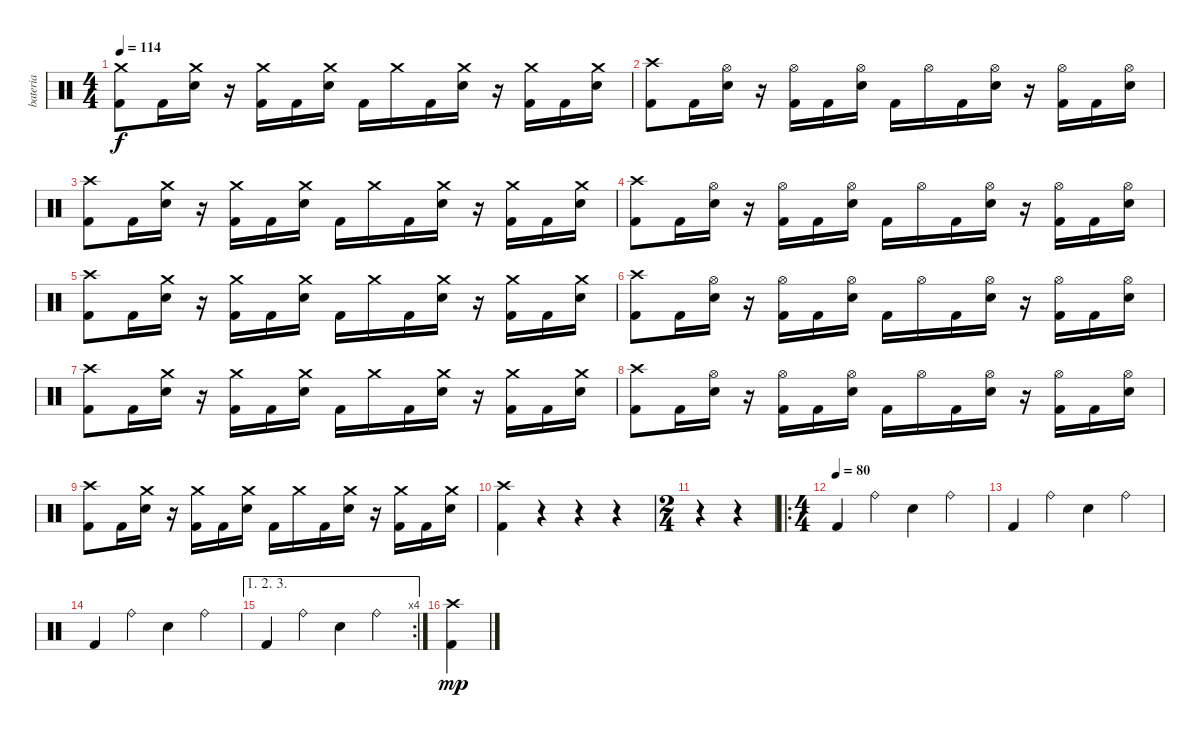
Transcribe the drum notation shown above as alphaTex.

\track ("bateria" "bateria") {instrument percussion}
\staff {score}
\articulation defaults
\ts (4 4)
\tempo 114
\clef neutral
\ks c
("Crash medium (hit)" "Kick (hit) 2").8{dy f} "Kick (hit) 2".16 ("Crash medium (hit)" "Electric Snare (hit)").16 r.16 ("Crash medium (hit)" "Kick (hit) 2").16 "Kick (hit) 2".16 ("Crash medium (hit)" "Electric Snare (hit)").16 "Kick (hit) 2".16 "Crash medium (hit)".16 "Kick (hit) 2".16 ("Crash medium (hit)" "Electric Snare (hit)").16 r.16 ("Crash medium (hit)" "Kick (hit) 2").16 "Kick (hit) 2".16 ("Crash medium (hit)" "Electric Snare (hit)").16 |
("Crash high (hit)" "Kick (hit) 2").8 "Kick (hit) 2".16 ("Hi-Hat (open)" "Electric Snare (hit)").16 r.16 ("Hi-Hat (open)" "Kick (hit) 2").16 "Kick (hit) 2".16 ("Hi-Hat (open)" "Electric Snare (hit)").16 "Kick (hit) 2".16 "Hi-Hat (open)".16 "Kick (hit) 2".16 ("Hi-Hat (open)" "Electric Snare (hit)").16 r.16 ("Hi-Hat (open)" "Kick (hit) 2").16 "Kick (hit) 2".16 ("Hi-Hat (open)" "Electric Snare (hit)").16 |
("Crash high (hit)" "Kick (hit) 2").8 "Kick (hit) 2".16 ("Crash medium (hit)" "Electric Snare (hit)").16 r.16 ("Crash medium (hit)" "Kick (hit) 2").16 "Kick (hit) 2".16 ("Crash medium (hit)" "Electric Snare (hit)").16 "Kick (hit) 2".16 "Crash medium (hit)".16 "Kick (hit) 2".16 ("Crash medium (hit)" "Electric Snare (hit)").16 r.16 ("Crash medium (hit)" "Kick (hit) 2").16 "Kick (hit) 2".16 ("Crash medium (hit)" "Electric Snare (hit)").16 |
("Crash high (hit)" "Kick (hit) 2").8 "Kick (hit) 2".16 ("Hi-Hat (open)" "Electric Snare (hit)").16 r.16 ("Hi-Hat (open)" "Kick (hit) 2").16 "Kick (hit) 2".16 ("Hi-Hat (open)" "Electric Snare (hit)").16 "Kick (hit) 2".16 "Hi-Hat (open)".16 "Kick (hit) 2".16 ("Hi-Hat (open)" "Electric Snare (hit)").16 r.16 ("Hi-Hat (open)" "Kick (hit) 2").16 "Kick (hit) 2".16 ("Hi-Hat (open)" "Electric Snare (hit)").16 |
("Crash high (hit)" "Kick (hit) 2").8 "Kick (hit) 2".16 ("Crash medium (hit)" "Electric Snare (hit)").16 r.16 ("Crash medium (hit)" "Kick (hit) 2").16 "Kick (hit) 2".16 ("Crash medium (hit)" "Electric Snare (hit)").16 "Kick (hit) 2".16 "Crash medium (hit)".16 "Kick (hit) 2".16 ("Crash medium (hit)" "Electric Snare (hit)").16 r.16 ("Crash medium (hit)" "Kick (hit) 2").16 "Kick (hit) 2".16 ("Crash medium (hit)" "Electric Snare (hit)").16 |
("Crash high (hit)" "Kick (hit) 2").8 "Kick (hit) 2".16 ("Hi-Hat (open)" "Electric Snare (hit)").16 r.16 ("Hi-Hat (open)" "Kick (hit) 2").16 "Kick (hit) 2".16 ("Hi-Hat (open)" "Electric Snare (hit)").16 "Kick (hit) 2".16 "Hi-Hat (open)".16 "Kick (hit) 2".16 ("Hi-Hat (open)" "Electric Snare (hit)").16 r.16 ("Hi-Hat (open)" "Kick (hit) 2").16 "Kick (hit) 2".16 ("Hi-Hat (open)" "Electric Snare (hit)").16 |
("Crash high (hit)" "Kick (hit) 2").8 "Kick (hit) 2".16 ("Crash medium (hit)" "Electric Snare (hit)").16 r.16 ("Crash medium (hit)" "Kick (hit) 2").16 "Kick (hit) 2".16 ("Crash medium (hit)" "Electric Snare (hit)").16 "Kick (hit) 2".16 "Crash medium (hit)".16 "Kick (hit) 2".16 ("Crash medium (hit)" "Electric Snare (hit)").16 r.16 ("Crash medium (hit)" "Kick (hit) 2").16 "Kick (hit) 2".16 ("Crash medium (hit)" "Electric Snare (hit)").16 |
("Crash high (hit)" "Kick (hit) 2").8 "Kick (hit) 2".16 ("Hi-Hat (open)" "Electric Snare (hit)").16 r.16 ("Hi-Hat (open)" "Kick (hit) 2").16 "Kick (hit) 2".16 ("Hi-Hat (open)" "Electric Snare (hit)").16 "Kick (hit) 2".16 "Hi-Hat (open)".16 "Kick (hit) 2".16 ("Hi-Hat (open)" "Electric Snare (hit)").16 r.16 ("Hi-Hat (open)" "Kick (hit) 2").16 "Kick (hit) 2".16 ("Hi-Hat (open)" "Electric Snare (hit)").16 |
("Crash high (hit)" "Kick (hit) 2").8 "Kick (hit) 2".16 ("Crash medium (hit)" "Electric Snare (hit)").16 r.16 ("Crash medium (hit)" "Kick (hit) 2").16 "Kick (hit) 2".16 ("Crash medium (hit)" "Electric Snare (hit)").16 "Kick (hit) 2".16 "Crash medium (hit)".16 "Kick (hit) 2".16 ("Crash medium (hit)" "Electric Snare (hit)").16 r.16 ("Crash medium (hit)" "Kick (hit) 2").16 "Kick (hit) 2".16 ("Crash medium (hit)" "Electric Snare (hit)").16 |
("Crash high (hit)" "Kick (hit) 2").4 r.4 r.4 r.4 |
\ts (2 4)
r.4 r.4 |
\ro
\ts (4 4)
\tempo (80)
"Kick (hit) 2".4 "Ride (bell)".4 "Electric Snare (hit)".4 "Ride (bell)".4 |
"Kick (hit) 2".4 "Ride (bell)".4 "Electric Snare (hit)".4 "Ride (bell)".4 |
"Kick (hit) 2".4 "Ride (bell)".4 "Electric Snare (hit)".4 "Ride (bell)".4 |
\ae (1 2 3)
\rc 4 "Kick (hit) 2".4 "Ride (bell)".4 "Electric Snare (hit)".4 "Ride (bell)".4
|
("Crash high (hit)" "Kick (hit) 2").4{dy mp}
